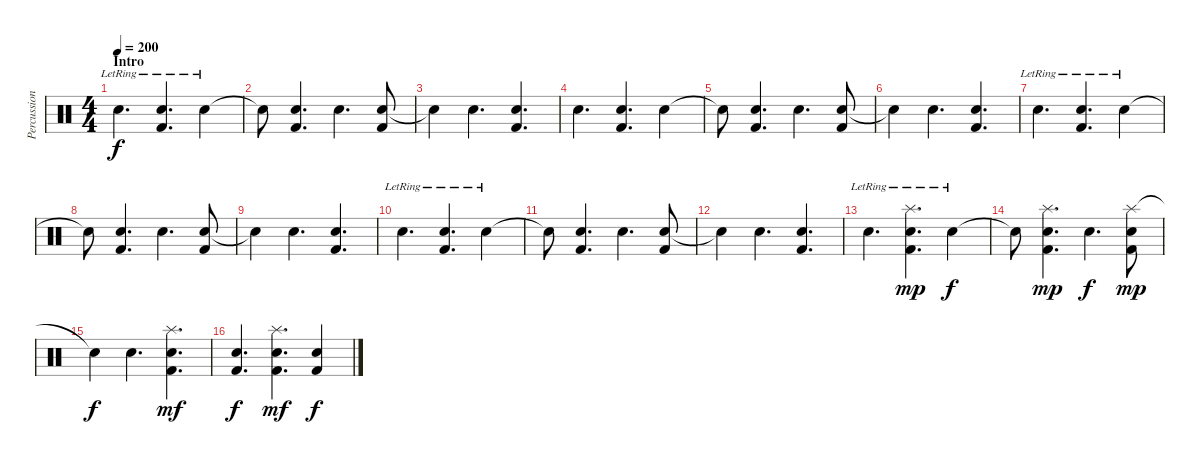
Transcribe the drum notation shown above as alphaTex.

\track ("Percussion" "Percussion") {instrument percussion}
\staff {score}
\articulation defaults
\ts (4 4)
\section ("" "Intro")
\tempo 200
\clef neutral
\ks c "Electric Snare (hit)"{lr}.4{d dy f}
("Electric Snare (hit)"{lr} "Kick (hit) 2").4{d} "Electric Snare (hit)"{lr}.4 |
"Snare (hit)"{t}.8 ("Electric Snare (hit)" "Kick (hit) 2").4{d} "Electric Snare (hit)".4{d} ("Electric Snare (hit)" "Kick (hit) 2").8 |
"Snare (hit)"{t}.4 "Electric Snare (hit)".4{d} ("Electric Snare (hit)" "Kick (hit) 2").4{d} |
"Electric Snare (hit)".4{d} ("Electric Snare (hit)" "Kick (hit) 2").4{d} "Electric Snare (hit)".4 |
"Snare (hit)"{t}.8 ("Electric Snare (hit)" "Kick (hit) 2").4{d} "Electric Snare (hit)".4{d} ("Electric Snare (hit)" "Kick (hit) 2").8 |
"Snare (hit)"{t}.4 "Electric Snare (hit)".4{d} ("Electric Snare (hit)" "Kick (hit) 2").4{d} |
"Electric Snare (hit)"{lr}.4{d} ("Electric Snare (hit)"{lr} "Kick (hit) 2").4{d} "Electric Snare (hit)"{lr}.4 |
"Snare (hit)"{t}.8 ("Electric Snare (hit)" "Kick (hit) 2").4{d} "Electric Snare (hit)".4{d} ("Electric Snare (hit)" "Kick (hit) 2").8 |
"Snare (hit)"{t}.4 "Electric Snare (hit)".4{d} ("Electric Snare (hit)" "Kick (hit) 2").4{d} |
"Electric Snare (hit)"{lr}.4{d} ("Electric Snare (hit)"{lr} "Kick (hit) 2").4{d} "Electric Snare (hit)"{lr}.4 |
"Snare (hit)"{t}.8 ("Electric Snare (hit)" "Kick (hit) 2").4{d} "Electric Snare (hit)".4{d} ("Electric Snare (hit)" "Kick (hit) 2").8 |
"Snare (hit)"{t}.4 "Electric Snare (hit)".4{d} ("Electric Snare (hit)" "Kick (hit) 2").4{d} |
"Electric Snare (hit)"{lr}.4{d} ("Splash (hit)" "Electric Snare (hit)"{lr} "Kick (hit) 2").4{d dy mp} "Electric Snare (hit)"{lr}.4{dy f} |
"Snare (hit)"{t}.8 ("Splash (hit)" "Electric Snare (hit)" "Kick (hit) 2").4{d dy mp} "Electric Snare (hit)".4{d dy f} ("Splash (hit)" "Electric Snare (hit)" "Kick (hit) 2").8{dy mp} |
"Snare (hit)"{t}.4{dy f} "Electric Snare (hit)".4{d} ("Splash (hit)" "Electric Snare (hit)" "Kick (hit) 2").4{d dy mf} |
("Electric Snare (hit)" "Kick (hit) 2").4{d dy f} ("Splash (hit)" "Electric Snare (hit)" "Kick (hit) 2").4{d dy mf} ("Electric Snare (hit)" "Kick (hit) 2").4{dy f}
